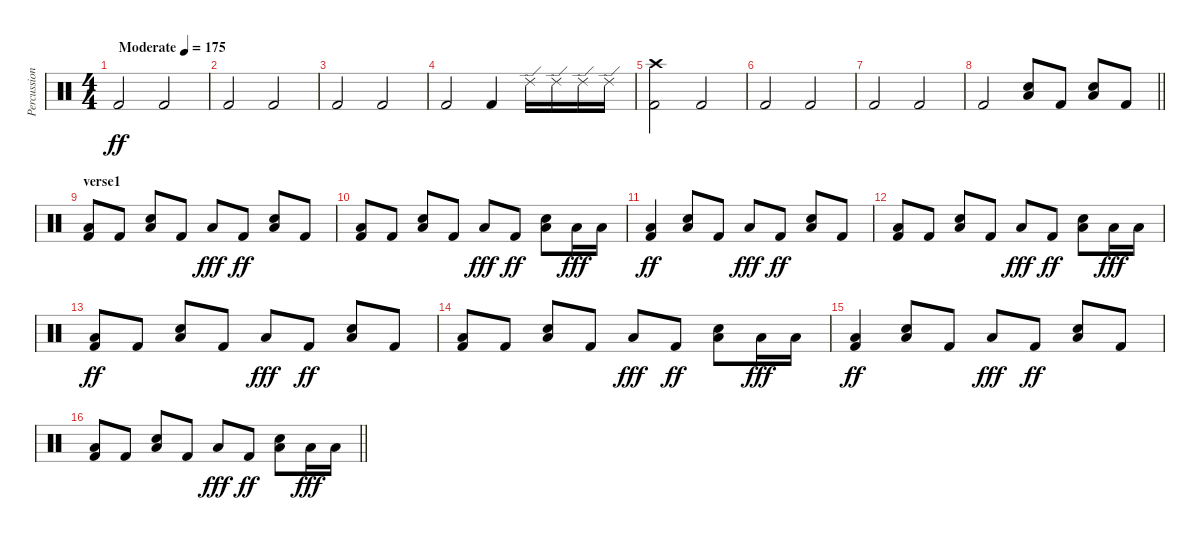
\track ("Percussion" "Percussion") {instrument percussion}
\staff {score}
\articulation defaults
\ts (4 4)
\tempo (175 "Moderate")
\clef neutral
\ks c "Kick (hit) 2".2{dy ff} "Kick (hit) 2".2
|
"Kick (hit) 2".2 "Kick (hit) 2".2 |
"Kick (hit) 2".2 "Kick (hit) 2".2 |
"Kick (hit) 2".2 "Kick (hit) 2".4 "Ride (edge) 2".16 "Ride (edge) 2".16 "Ride (edge) 2".16 "Ride (edge) 2".16 |
("Crash high (hit)" "Kick (hit) 2").2 "Kick (hit) 2".2 |
"Kick (hit) 2".2 "Kick (hit) 2".2 |
"Kick (hit) 2".2 "Kick (hit) 2".2 |
\barLineRight lightlight "Kick (hit) 2".2
("Low Tom (hit)" "Snare (hit) 2").8 "Kick (hit) 2".8 ("Low Tom (hit)" "Snare (hit) 2").8 "Kick (hit) 2".8 |
\section ("" "verse1")
("Low Tom (hit)" "Kick (hit) 2").8 "Kick (hit) 2".8 ("Low Tom (hit)" "Snare (hit) 2").8 "Kick (hit) 2".8 "Low Tom (hit)".8{dy fff} "Kick (hit) 2".8{dy ff} ("Low Tom (hit)" "Snare (hit) 2").8 "Kick (hit) 2".8 |
("Low Tom (hit)" "Kick (hit) 2").8 "Kick (hit) 2".8 ("Low Tom (hit)" "Snare (hit) 2").8 "Kick (hit) 2".8 "Low Tom (hit)".8{dy fff} "Kick (hit) 2".8{dy ff} ("Low Tom (hit)" "Snare (hit) 2").8 "Low Tom (hit)".16{dy fff} "Low Tom (hit)".16 |
("Low Tom (hit)" "Kick (hit) 2").4{dy ff} ("Low Tom (hit)" "Snare (hit) 2").8 "Kick (hit) 2".8 "Low Tom (hit)".8{dy fff} "Kick (hit) 2".8{dy ff} ("Low Tom (hit)" "Snare (hit) 2").8 "Kick (hit) 2".8 |
("Low Tom (hit)" "Kick (hit) 2").8 "Kick (hit) 2".8 ("Low Tom (hit)" "Snare (hit) 2").8 "Kick (hit) 2".8 "Low Tom (hit)".8{dy fff} "Kick (hit) 2".8{dy ff} ("Low Tom (hit)" "Snare (hit) 2").8 "Low Tom (hit)".16{dy fff} "Low Tom (hit)".16 |
("Low Tom (hit)" "Kick (hit) 2").8{dy ff} "Kick (hit) 2".8 ("Low Tom (hit)" "Snare (hit) 2").8 "Kick (hit) 2".8 "Low Tom (hit)".8{dy fff} "Kick (hit) 2".8{dy ff} ("Low Tom (hit)" "Snare (hit) 2").8 "Kick (hit) 2".8 |
("Low Tom (hit)" "Kick (hit) 2").8 "Kick (hit) 2".8 ("Low Tom (hit)" "Snare (hit) 2").8 "Kick (hit) 2".8 "Low Tom (hit)".8{dy fff} "Kick (hit) 2".8{dy ff} ("Low Tom (hit)" "Snare (hit) 2").8 "Low Tom (hit)".16{dy fff} "Low Tom (hit)".16 |
("Low Tom (hit)" "Kick (hit) 2").4{dy ff} ("Low Tom (hit)" "Snare (hit) 2").8 "Kick (hit) 2".8 "Low Tom (hit)".8{dy fff} "Kick (hit) 2".8{dy ff} ("Low Tom (hit)" "Snare (hit) 2").8 "Kick (hit) 2".8 |
\barLineRight lightlight
("Low Tom (hit)" "Kick (hit) 2").8 "Kick (hit) 2".8 ("Low Tom (hit)" "Snare (hit) 2").8 "Kick (hit) 2".8 "Low Tom (hit)".8{dy fff} "Kick (hit) 2".8{dy ff} ("Low Tom (hit)" "Snare (hit) 2").8 "Low Tom (hit)".16{dy fff} "Low Tom (hit)".16
